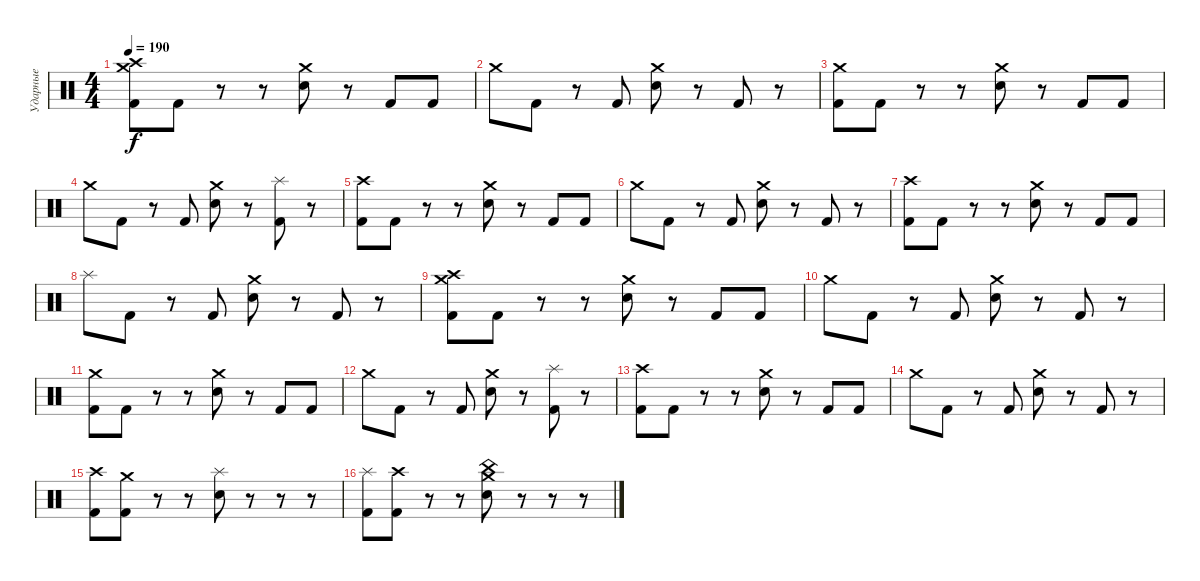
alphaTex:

\track ("Ударные" "Ударные") {instrument percussion}
\staff {score}
\articulation defaults
\ts (4 4)
\tempo 190
\clef neutral
\ks c
("Kick (hit) 2" "Crash high (hit)" "Crash medium (hit)").8{dy f} "Kick (hit) 2".8 r.8 r.8 ("Electric Snare (hit)" "Crash medium (hit)").8 r.8 "Kick (hit) 2".8 "Kick (hit) 2".8 |
"Crash medium (hit)".8 "Kick (hit) 2".8 r.8 "Kick (hit) 2".8 ("Electric Snare (hit)" "Crash medium (hit)").8 r.8 "Kick (hit) 2".8 r.8 |
("Kick (hit) 2" "Crash medium (hit)").8 "Kick (hit) 2".8 r.8 r.8 ("Electric Snare (hit)" "Crash medium (hit)").8 r.8 "Kick (hit) 2".8 "Kick (hit) 2".8 |
"Crash medium (hit)".8 "Kick (hit) 2".8 r.8 "Kick (hit) 2".8 ("Electric Snare (hit)" "Crash medium (hit)").8 r.8 ("Kick (hit) 2" "Splash (hit)").8 r.8 |
("Kick (hit) 2" "Crash high (hit)").8 "Kick (hit) 2".8 r.8 r.8 ("Electric Snare (hit)" "Crash medium (hit)").8 r.8 "Kick (hit) 2".8 "Kick (hit) 2".8 |
"Crash medium (hit)".8 "Kick (hit) 2".8 r.8 "Kick (hit) 2".8 ("Electric Snare (hit)" "Crash medium (hit)").8 r.8 "Kick (hit) 2".8 r.8 |
("Kick (hit) 2" "Crash high (hit)").8 "Kick (hit) 2".8 r.8 r.8 ("Electric Snare (hit)" "Crash medium (hit)").8 r.8 "Kick (hit) 2".8 "Kick (hit) 2".8 |
"Splash (hit)".8 "Kick (hit) 2".8 r.8 "Kick (hit) 2".8 ("Electric Snare (hit)" "Crash medium (hit)").8 r.8 "Kick (hit) 2".8 r.8 |
("Kick (hit) 2" "Crash high (hit)" "Crash medium (hit)").8 "Kick (hit) 2".8 r.8 r.8 ("Electric Snare (hit)" "Crash medium (hit)").8 r.8 "Kick (hit) 2".8 "Kick (hit) 2".8 |
"Crash medium (hit)".8 "Kick (hit) 2".8 r.8 "Kick (hit) 2".8 ("Electric Snare (hit)" "Crash medium (hit)").8 r.8 "Kick (hit) 2".8 r.8 |
("Kick (hit) 2" "Crash medium (hit)").8 "Kick (hit) 2".8 r.8 r.8 ("Electric Snare (hit)" "Crash medium (hit)").8 r.8 "Kick (hit) 2".8 "Kick (hit) 2".8 |
"Crash medium (hit)".8 "Kick (hit) 2".8 r.8 "Kick (hit) 2".8 ("Electric Snare (hit)" "Crash medium (hit)").8 r.8 ("Kick (hit) 2" "Splash (hit)").8 r.8 |
("Kick (hit) 2" "Crash high (hit)").8 "Kick (hit) 2".8 r.8 r.8 ("Electric Snare (hit)" "Crash medium (hit)").8 r.8 "Kick (hit) 2".8 "Kick (hit) 2".8 |
"Crash medium (hit)".8 "Kick (hit) 2".8 r.8 "Kick (hit) 2".8 ("Electric Snare (hit)" "Crash medium (hit)").8 r.8 "Kick (hit) 2".8 r.8 |
("Kick (hit) 2" "Crash high (hit)").8 ("Kick (hit) 2" "Crash medium (hit)").8 r.8 r.8 ("Electric Snare (hit)" "Splash (hit)").8 r.8 r.8 r.8 |
("Kick (hit) 2" "Splash (hit)").8 ("Kick (hit) 2" "Crash high (hit)").8 r.8 r.8 ("Electric Snare (hit)" "China (hit)" "Crash medium (hit)").8 r.8 r.8 r.8
